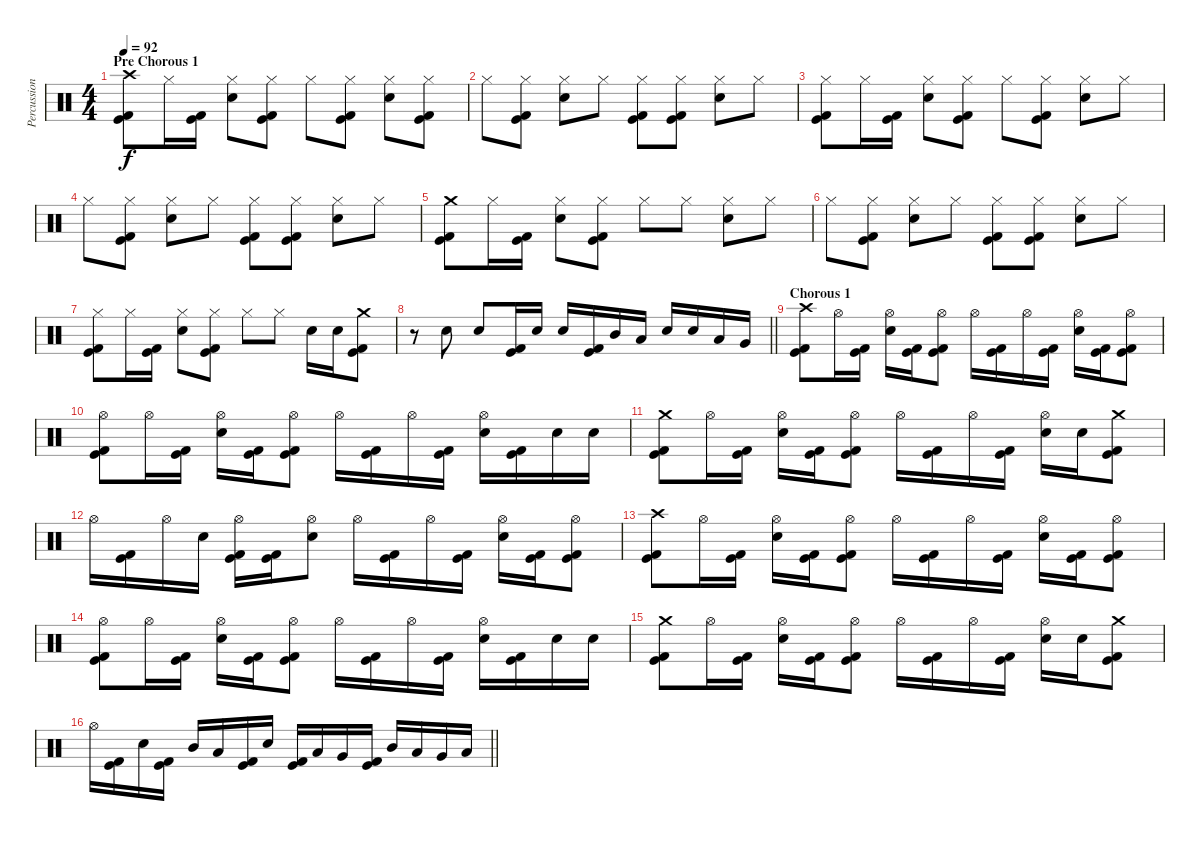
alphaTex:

\track ("Percussion" "Percussion") {instrument percussion}
\staff {score}
\articulation defaults
\ts (4 4)
\section ("" "Pre Chorous 1")
\tempo 92
\clef neutral
\ks c
("Crash high (hit)" "Kick (hit)" "Kick (hit) 2").8{dy f} "Hi-Hat (closed)".16 ("Kick (hit)" "Kick (hit) 2").16 ("Hi-Hat (closed)" "Electric Snare (hit)").8 ("Hi-Hat (closed)" "Kick (hit)" "Kick (hit) 2").8 "Hi-Hat (closed)".8 ("Hi-Hat (closed)" "Kick (hit)" "Kick (hit) 2").8 ("Hi-Hat (closed)" "Electric Snare (hit)").8 ("Hi-Hat (closed)" "Kick (hit)" "Kick (hit) 2").8 |
"Hi-Hat (closed)".8 ("Hi-Hat (closed)" "Kick (hit)" "Kick (hit) 2").8 ("Hi-Hat (closed)" "Electric Snare (hit)").8 "Hi-Hat (closed)".8 ("Hi-Hat (closed)" "Kick (hit)" "Kick (hit) 2").8 ("Hi-Hat (closed)" "Kick (hit)" "Kick (hit) 2").8 ("Hi-Hat (closed)" "Electric Snare (hit)").8 "Hi-Hat (closed)".8 |
("Hi-Hat (closed)" "Kick (hit)" "Kick (hit) 2").8 "Hi-Hat (closed)".16 ("Kick (hit)" "Kick (hit) 2").16 ("Hi-Hat (closed)" "Electric Snare (hit)").8 ("Hi-Hat (closed)" "Kick (hit)" "Kick (hit) 2").8 "Hi-Hat (closed)".8 ("Hi-Hat (closed)" "Kick (hit)" "Kick (hit) 2").8 ("Hi-Hat (closed)" "Electric Snare (hit)").8 "Hi-Hat (closed)".8 |
"Hi-Hat (closed)".8 ("Hi-Hat (closed)" "Kick (hit)" "Kick (hit) 2").8 ("Hi-Hat (closed)" "Electric Snare (hit)").8 "Hi-Hat (closed)".8 ("Hi-Hat (closed)" "Kick (hit)" "Kick (hit) 2").8 ("Hi-Hat (closed)" "Kick (hit)" "Kick (hit) 2").8 ("Hi-Hat (closed)" "Electric Snare (hit)").8 "Hi-Hat (closed)".8 |
("Crash medium (hit)" "Kick (hit)" "Kick (hit) 2").8 "Hi-Hat (closed)".16 ("Kick (hit)" "Kick (hit) 2").16 ("Hi-Hat (closed)" "Electric Snare (hit)").8 ("Hi-Hat (closed)" "Kick (hit)" "Kick (hit) 2").8 "Hi-Hat (closed)".8 "Hi-Hat (closed)".8 ("Hi-Hat (closed)" "Electric Snare (hit)").8 "Hi-Hat (closed)".8 |
"Hi-Hat (closed)".8 ("Hi-Hat (closed)" "Kick (hit)" "Kick (hit) 2").8 ("Hi-Hat (closed)" "Electric Snare (hit)").8 "Hi-Hat (closed)".8 ("Hi-Hat (closed)" "Kick (hit)" "Kick (hit) 2").8 ("Hi-Hat (closed)" "Kick (hit)" "Kick (hit) 2").8 ("Hi-Hat (closed)" "Electric Snare (hit)").8 "Hi-Hat (closed)".8 |
("Hi-Hat (closed)" "Kick (hit)" "Kick (hit) 2").8 "Hi-Hat (closed)".16 ("Kick (hit)" "Kick (hit) 2").16 ("Hi-Hat (closed)" "Electric Snare (hit)").8 ("Hi-Hat (closed)" "Kick (hit)" "Kick (hit) 2").8 "Hi-Hat (closed)".8 "Hi-Hat (closed)".8 "Electric Snare (hit)".16 "Electric Snare (hit)".16 ("Crash medium (hit)" "Kick (hit)" "Kick (hit) 2").8 |
\barLineRight lightlight
r.8 "Electric Snare (hit)".8 "Electric Snare (hit)".8 ("Kick (hit)" "Kick (hit) 2").16 "Electric Snare (hit)".16 "Electric Snare (hit)".16 ("Kick (hit)" "Kick (hit) 2").16 "Mid Tom (hit)".16 "Low Tom (hit)".16 "Electric Snare (hit)".16 "Electric Snare (hit)".16 "Low Tom (hit)".16 "Very Low Tom (hit)".16 |
\section ("" "Chorous 1")
("Crash high (hit)" "Kick (hit)" "Kick (hit) 2").8 "Hi-Hat (open)".16 ("Kick (hit)" "Kick (hit) 2").16 ("Hi-Hat (open)" "Electric Snare (hit)").16 ("Kick (hit)" "Kick (hit) 2").16 ("Hi-Hat (open)" "Kick (hit)" "Kick (hit) 2").8 "Hi-Hat (open)".16 ("Kick (hit)" "Kick (hit) 2").16 "Hi-Hat (open)".16 ("Kick (hit)" "Kick (hit) 2").16 ("Hi-Hat (open)" "Electric Snare (hit)").16 ("Kick (hit)" "Kick (hit) 2").16 ("Hi-Hat (open)" "Kick (hit)" "Kick (hit) 2").8 |
("Hi-Hat (open)" "Kick (hit)" "Kick (hit) 2").8 "Hi-Hat (open)".16 ("Kick (hit)" "Kick (hit) 2").16 ("Hi-Hat (open)" "Electric Snare (hit)").16 ("Kick (hit)" "Kick (hit) 2").16 ("Hi-Hat (open)" "Kick (hit)" "Kick (hit) 2").8 "Hi-Hat (open)".16 ("Kick (hit)" "Kick (hit) 2").16 "Hi-Hat (open)".16 ("Kick (hit)" "Kick (hit) 2").16 ("Hi-Hat (open)" "Electric Snare (hit)").16 ("Kick (hit)" "Kick (hit) 2").16 "Electric Snare (hit)".16 "Electric Snare (hit)".16 |
("Crash medium (hit)" "Kick (hit)" "Kick (hit) 2").8 "Hi-Hat (open)".16 ("Kick (hit)" "Kick (hit) 2").16 ("Hi-Hat (open)" "Electric Snare (hit)").16 ("Kick (hit)" "Kick (hit) 2").16 ("Hi-Hat (open)" "Kick (hit)" "Kick (hit) 2").8 "Hi-Hat (open)".16 ("Kick (hit)" "Kick (hit) 2").16 "Hi-Hat (open)".16 ("Kick (hit)" "Kick (hit) 2").16 ("Hi-Hat (open)" "Electric Snare (hit)").16 "Electric Snare (hit)".16 ("Crash medium (hit)" "Kick (hit)" "Kick (hit) 2").8 |
"Hi-Hat (open)".16 ("Kick (hit)" "Kick (hit) 2").16 "Hi-Hat (open)".16 "Electric Snare (hit)".16 ("Hi-Hat (open)" "Kick (hit)" "Kick (hit) 2").16 ("Kick (hit)" "Kick (hit) 2").16 ("Hi-Hat (open)" "Electric Snare (hit)").8 "Hi-Hat (open)".16 ("Kick (hit)" "Kick (hit) 2").16 "Hi-Hat (open)".16 ("Kick (hit)" "Kick (hit) 2").16 ("Hi-Hat (open)" "Electric Snare (hit)").16 ("Kick (hit)" "Kick (hit) 2").16 ("Hi-Hat (open)" "Kick (hit)" "Kick (hit) 2").8 |
("Crash high (hit)" "Kick (hit)" "Kick (hit) 2").8 "Hi-Hat (open)".16 ("Kick (hit)" "Kick (hit) 2").16 ("Hi-Hat (open)" "Electric Snare (hit)").16 ("Kick (hit)" "Kick (hit) 2").16 ("Hi-Hat (open)" "Kick (hit)" "Kick (hit) 2").8 "Hi-Hat (open)".16 ("Kick (hit)" "Kick (hit) 2").16 "Hi-Hat (open)".16 ("Kick (hit)" "Kick (hit) 2").16 ("Hi-Hat (open)" "Electric Snare (hit)").16 ("Kick (hit)" "Kick (hit) 2").16 ("Hi-Hat (open)" "Kick (hit)" "Kick (hit) 2").8 |
("Hi-Hat (open)" "Kick (hit)" "Kick (hit) 2").8 "Hi-Hat (open)".16 ("Kick (hit)" "Kick (hit) 2").16 ("Hi-Hat (open)" "Electric Snare (hit)").16 ("Kick (hit)" "Kick (hit) 2").16 ("Hi-Hat (open)" "Kick (hit)" "Kick (hit) 2").8 "Hi-Hat (open)".16 ("Kick (hit)" "Kick (hit) 2").16 "Hi-Hat (open)".16 ("Kick (hit)" "Kick (hit) 2").16 ("Hi-Hat (open)" "Electric Snare (hit)").16 ("Kick (hit)" "Kick (hit) 2").16 "Electric Snare (hit)".16 "Electric Snare (hit)".16 |
("Crash medium (hit)" "Kick (hit)" "Kick (hit) 2").8 "Hi-Hat (open)".16 ("Kick (hit)" "Kick (hit) 2").16 ("Hi-Hat (open)" "Electric Snare (hit)").16 ("Kick (hit)" "Kick (hit) 2").16 ("Hi-Hat (open)" "Kick (hit)" "Kick (hit) 2").8 "Hi-Hat (open)".16 ("Kick (hit)" "Kick (hit) 2").16 "Hi-Hat (open)".16 ("Kick (hit)" "Kick (hit) 2").16 ("Hi-Hat (open)" "Electric Snare (hit)").16 "Electric Snare (hit)".16 ("Crash medium (hit)" "Kick (hit)" "Kick (hit) 2").8 |
\barLineRight lightlight "Hi-Hat (open)".16
("Kick (hit)" "Kick (hit) 2").16 "Electric Snare (hit)".16 ("Kick (hit)" "Kick (hit) 2").16 "Mid Tom (hit)".16 "Low Tom (hit)".16 ("Kick (hit)" "Kick (hit) 2").16 "Electric Snare (hit)".16 ("Kick (hit)" "Kick (hit) 2").16 "Low Tom (hit)".16 "Very Low Tom (hit)".16 ("Kick (hit)" "Kick (hit) 2").16 "Mid Tom (hit)".16 "Low Tom (hit)".16 "Very Low Tom (hit)".16 "Low Floor Tom (hit)".16
